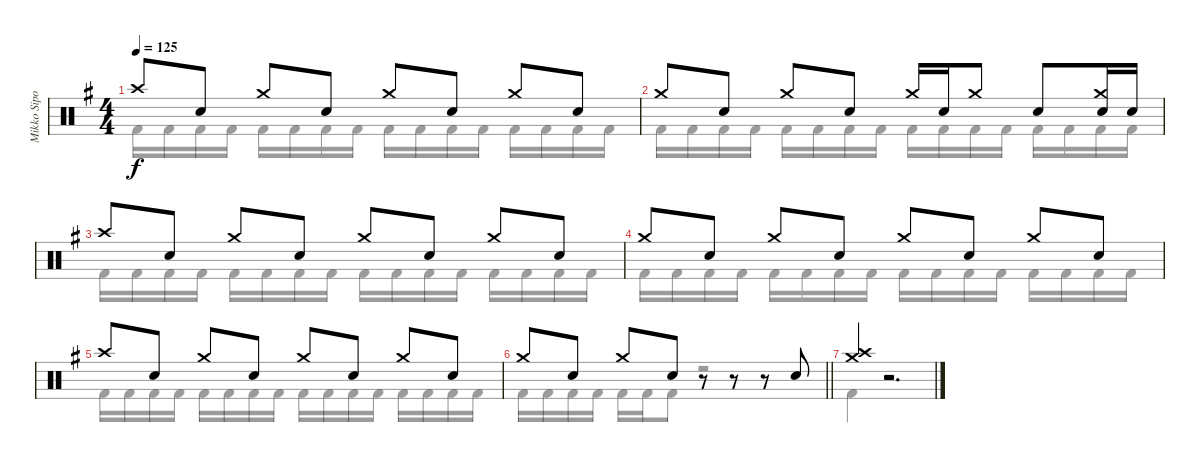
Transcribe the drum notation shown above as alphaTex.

\track ("Mikko Sipola (drums)" "Mikko Sipo") {instrument percussion}
\staff {score}
\articulation defaults
\voice
\ts (4 4)
\tempo 125
\clef neutral
\ks g "Crash high (hit)".8{dy f} "Electric Snare (hit)".8 "Crash medium (hit)".8 "Electric Snare (hit)".8 "Crash medium (hit)".8 "Electric Snare (hit)".8 "Crash medium (hit)".8 "Electric Snare (hit)".8
|
"Crash medium (hit)".8 "Electric Snare (hit)".8 "Crash medium (hit)".8 "Electric Snare (hit)".8 "Crash medium (hit)".16 "Electric Snare (hit)".16 "Crash medium (hit)".8 "Electric Snare (hit)".8 ("Crash medium (hit)" "Electric Snare (hit)").16 "Electric Snare (hit)".16 |
"Crash high (hit)".8 "Electric Snare (hit)".8 "Crash medium (hit)".8 "Electric Snare (hit)".8 "Crash medium (hit)".8 "Electric Snare (hit)".8 "Crash medium (hit)".8 "Electric Snare (hit)".8 |
"Crash medium (hit)".8 "Electric Snare (hit)".8 "Crash medium (hit)".8 "Electric Snare (hit)".8 "Crash medium (hit)".8 "Electric Snare (hit)".8 "Crash medium (hit)".8 "Electric Snare (hit)".8 |
"Crash high (hit)".8 "Electric Snare (hit)".8 "Crash medium (hit)".8 "Electric Snare (hit)".8 "Crash medium (hit)".8 "Electric Snare (hit)".8 "Crash medium (hit)".8 "Electric Snare (hit)".8 |
\barLineRight lightlight "Crash medium (hit)".8 "Electric Snare (hit)".8 "Crash medium (hit)".8 "Electric Snare (hit)".8
r.8 r.8 r.8 "Electric Snare (hit)".8 |
\ks eminor
("Crash high (hit)" "Crash medium (hit)").4 r.2{d}
\voice
\clef neutral
\ottava regular
\simile none
\ks g "Kick (hit) 2".16{dy f} "Kick (hit) 2".16 "Kick (hit) 2".16 "Kick (hit) 2".16 "Kick (hit) 2".16 "Kick (hit) 2".16 "Kick (hit) 2".16 "Kick (hit) 2".16 "Kick (hit) 2".16 "Kick (hit) 2".16 "Kick (hit) 2".16 "Kick (hit) 2".16 "Kick (hit) 2".16 "Kick (hit) 2".16 "Kick (hit) 2".16 "Kick (hit) 2".16
|
"Kick (hit) 2".16 "Kick (hit) 2".16 "Kick (hit) 2".16 "Kick (hit) 2".16 "Kick (hit) 2".16 "Kick (hit) 2".16 "Kick (hit) 2".16 "Kick (hit) 2".16 "Kick (hit) 2".16 "Kick (hit) 2".16 "Kick (hit) 2".16 "Kick (hit) 2".16 "Kick (hit) 2".16 "Kick (hit) 2".16 "Kick (hit) 2".16 "Kick (hit) 2".16 |
"Kick (hit) 2".16 "Kick (hit) 2".16 "Kick (hit) 2".16 "Kick (hit) 2".16 "Kick (hit) 2".16 "Kick (hit) 2".16 "Kick (hit) 2".16 "Kick (hit) 2".16 "Kick (hit) 2".16 "Kick (hit) 2".16 "Kick (hit) 2".16 "Kick (hit) 2".16 "Kick (hit) 2".16 "Kick (hit) 2".16 "Kick (hit) 2".16 "Kick (hit) 2".16 |
"Kick (hit) 2".16 "Kick (hit) 2".16 "Kick (hit) 2".16 "Kick (hit) 2".16 "Kick (hit) 2".16 "Kick (hit) 2".16 "Kick (hit) 2".16 "Kick (hit) 2".16 "Kick (hit) 2".16 "Kick (hit) 2".16 "Kick (hit) 2".16 "Kick (hit) 2".16 "Kick (hit) 2".16 "Kick (hit) 2".16 "Kick (hit) 2".16 "Kick (hit) 2".16 |
"Kick (hit) 2".16 "Kick (hit) 2".16 "Kick (hit) 2".16 "Kick (hit) 2".16 "Kick (hit) 2".16 "Kick (hit) 2".16 "Kick (hit) 2".16 "Kick (hit) 2".16 "Kick (hit) 2".16 "Kick (hit) 2".16 "Kick (hit) 2".16 "Kick (hit) 2".16 "Kick (hit) 2".16 "Kick (hit) 2".16 "Kick (hit) 2".16 "Kick (hit) 2".16 |
\barLineRight lightlight "Kick (hit) 2".16 "Kick (hit) 2".16 "Kick (hit) 2".16 "Kick (hit) 2".16 "Kick (hit) 2".16 "Kick (hit) 2".16 "Kick (hit) 2".8
r.2 |
\ks eminor "Kick (hit) 2".4
r.2{d}
